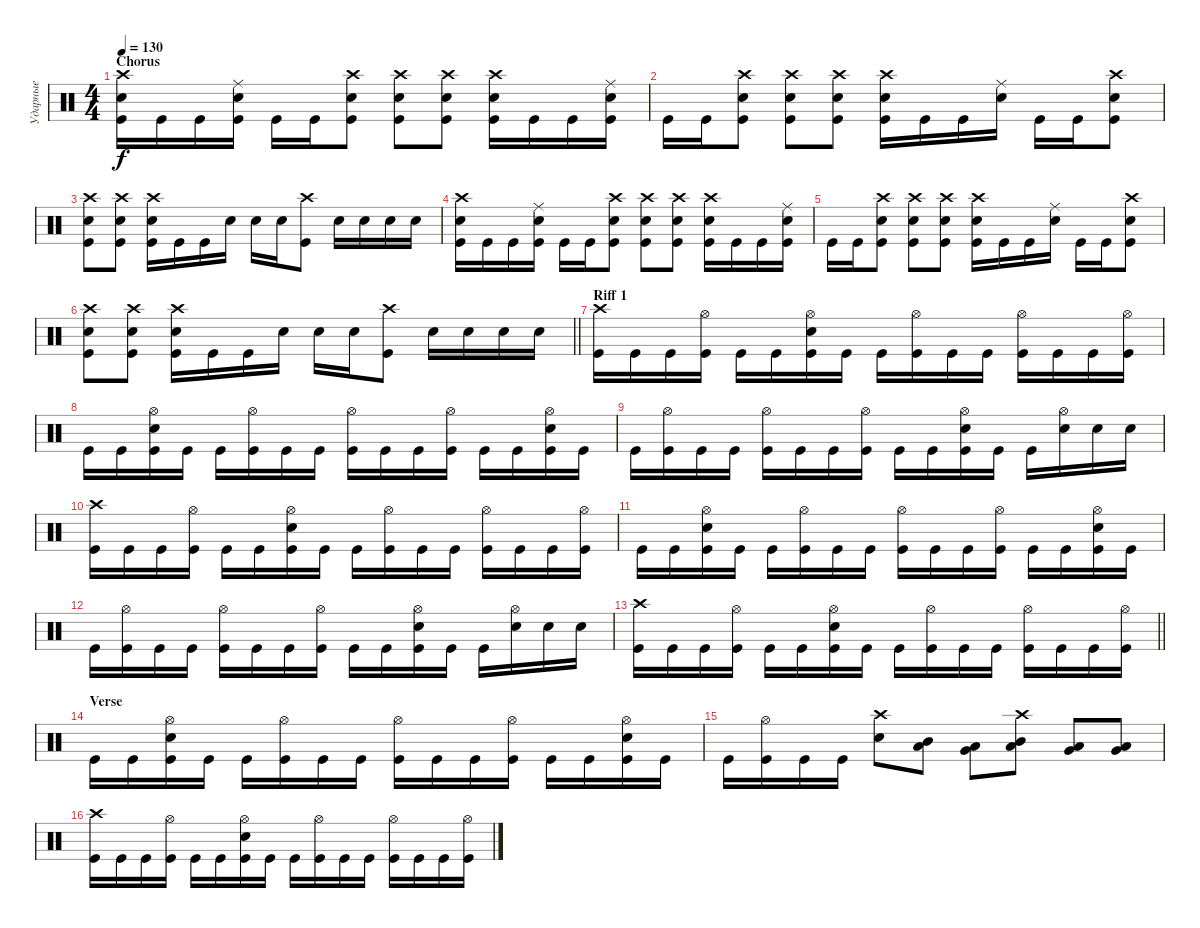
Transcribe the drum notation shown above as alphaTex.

\track ("Ударные" "Ударные") {instrument percussion}
\staff {score}
\articulation defaults
\ts (4 4)
\section ("" "Chorus")
\tempo 130
\clef neutral
\ks c
("Crash high (hit)" "Snare (hit) 2" "Kick (hit)").16{dy f} "Kick (hit)".16 "Kick (hit)".16 ("Ride (middle)" "Snare (hit) 2" "Kick (hit)").16 "Kick (hit)".16 "Kick (hit)".16 ("Crash high (hit)" "Snare (hit) 2" "Kick (hit)").8 ("Snare (hit) 2" "Crash high (hit)" "Kick (hit)").8 ("Snare (hit) 2" "Crash high (hit)" "Kick (hit)").8 ("Crash high (hit)" "Snare (hit) 2" "Kick (hit)").16 "Kick (hit)".16 "Kick (hit)".16 ("Ride (middle)" "Snare (hit) 2" "Kick (hit)").16 |
"Kick (hit)".16 "Kick (hit)".16 ("Crash high (hit)" "Snare (hit) 2" "Kick (hit)").8 ("Crash high (hit)" "Snare (hit) 2" "Kick (hit)").8 ("Crash high (hit)" "Snare (hit) 2" "Kick (hit)").8 ("Crash high (hit)" "Snare (hit) 2" "Kick (hit)").16 "Kick (hit)".16 "Kick (hit)".16 ("Ride (middle)" "Snare (hit) 2").16 "Kick (hit)".16 "Kick (hit)".16 ("Snare (hit) 2" "Crash high (hit)" "Kick (hit)").8 |
("Snare (hit) 2" "Crash high (hit)" "Kick (hit)").8 ("Snare (hit) 2" "Crash high (hit)" "Kick (hit)").8 ("Snare (hit) 2" "Crash high (hit)" "Kick (hit)").16 "Kick (hit)".16 "Kick (hit)".16 "Snare (hit) 2".16 "Snare (hit) 2".16 "Snare (hit) 2".16 ("Crash high (hit)" "Kick (hit)").8 "Snare (hit) 2".16 "Snare (hit) 2".16 "Snare (hit) 2".16 "Snare (hit) 2".16 |
("Crash high (hit)" "Snare (hit) 2" "Kick (hit)").16 "Kick (hit)".16 "Kick (hit)".16 ("Ride (middle)" "Snare (hit) 2" "Kick (hit)").16 "Kick (hit)".16 "Kick (hit)".16 ("Crash high (hit)" "Snare (hit) 2" "Kick (hit)").8 ("Snare (hit) 2" "Crash high (hit)" "Kick (hit)").8 ("Snare (hit) 2" "Crash high (hit)" "Kick (hit)").8 ("Crash high (hit)" "Snare (hit) 2" "Kick (hit)").16 "Kick (hit)".16 "Kick (hit)".16 ("Ride (middle)" "Snare (hit) 2" "Kick (hit)").16 |
"Kick (hit)".16 "Kick (hit)".16 ("Crash high (hit)" "Snare (hit) 2" "Kick (hit)").8 ("Crash high (hit)" "Snare (hit) 2" "Kick (hit)").8 ("Crash high (hit)" "Snare (hit) 2" "Kick (hit)").8 ("Crash high (hit)" "Snare (hit) 2" "Kick (hit)").16 "Kick (hit)".16 "Kick (hit)".16 ("Ride (middle)" "Snare (hit) 2").16 "Kick (hit)".16 "Kick (hit)".16 ("Snare (hit) 2" "Crash high (hit)" "Kick (hit)").8 |
\barLineRight lightlight
("Snare (hit) 2" "Crash high (hit)" "Kick (hit)").8 ("Snare (hit) 2" "Crash high (hit)" "Kick (hit)").8 ("Snare (hit) 2" "Crash high (hit)" "Kick (hit)").16 "Kick (hit)".16 "Kick (hit)".16 "Snare (hit) 2".16 "Snare (hit) 2".16 "Snare (hit) 2".16 ("Crash high (hit)" "Kick (hit)").8 "Snare (hit) 2".16 "Snare (hit) 2".16 "Snare (hit) 2".16 "Snare (hit) 2".16 |
\section ("" "Riff 1")
("Crash high (hit)" "Kick (hit)").16 "Kick (hit)".16 "Kick (hit)".16 ("Hi-Hat (open)" "Kick (hit)").16 "Kick (hit)".16 "Kick (hit)".16 ("Hi-Hat (open)" "Snare (hit) 2" "Kick (hit)").16 "Kick (hit)".16 "Kick (hit)".16 ("Hi-Hat (open)" "Kick (hit)").16 "Kick (hit)".16 "Kick (hit)".16 ("Hi-Hat (open)" "Kick (hit)").16 "Kick (hit)".16 "Kick (hit)".16 ("Hi-Hat (open)" "Kick (hit)").16 |
"Kick (hit)".16 "Kick (hit)".16 ("Hi-Hat (open)" "Snare (hit) 2" "Kick (hit)").16 "Kick (hit)".16 "Kick (hit)".16 ("Hi-Hat (open)" "Kick (hit)").16 "Kick (hit)".16 "Kick (hit)".16 ("Hi-Hat (open)" "Kick (hit)").16 "Kick (hit)".16 "Kick (hit)".16 ("Hi-Hat (open)" "Kick (hit)").16 "Kick (hit)".16 "Kick (hit)".16 ("Hi-Hat (open)" "Snare (hit) 2" "Kick (hit)").16 "Kick (hit)".16 |
"Kick (hit)".16 ("Hi-Hat (open)" "Kick (hit)").16 "Kick (hit)".16 "Kick (hit)".16 ("Hi-Hat (open)" "Kick (hit)").16 "Kick (hit)".16 "Kick (hit)".16 ("Hi-Hat (open)" "Kick (hit)").16 "Kick (hit)".16 "Kick (hit)".16 ("Snare (hit) 2" "Hi-Hat (open)" "Kick (hit)").16 "Kick (hit)".16 "Kick (hit)".16 ("Hi-Hat (open)" "Snare (hit) 2").16 "Snare (hit) 2".16 "Snare (hit) 2".16 |
("Crash high (hit)" "Kick (hit)").16 "Kick (hit)".16 "Kick (hit)".16 ("Hi-Hat (open)" "Kick (hit)").16 "Kick (hit)".16 "Kick (hit)".16 ("Hi-Hat (open)" "Snare (hit) 2" "Kick (hit)").16 "Kick (hit)".16 "Kick (hit)".16 ("Hi-Hat (open)" "Kick (hit)").16 "Kick (hit)".16 "Kick (hit)".16 ("Hi-Hat (open)" "Kick (hit)").16 "Kick (hit)".16 "Kick (hit)".16 ("Hi-Hat (open)" "Kick (hit)").16 |
"Kick (hit)".16 "Kick (hit)".16 ("Hi-Hat (open)" "Snare (hit) 2" "Kick (hit)").16 "Kick (hit)".16 "Kick (hit)".16 ("Hi-Hat (open)" "Kick (hit)").16 "Kick (hit)".16 "Kick (hit)".16 ("Hi-Hat (open)" "Kick (hit)").16 "Kick (hit)".16 "Kick (hit)".16 ("Hi-Hat (open)" "Kick (hit)").16 "Kick (hit)".16 "Kick (hit)".16 ("Hi-Hat (open)" "Snare (hit) 2" "Kick (hit)").16 "Kick (hit)".16 |
"Kick (hit)".16 ("Hi-Hat (open)" "Kick (hit)").16 "Kick (hit)".16 "Kick (hit)".16 ("Hi-Hat (open)" "Kick (hit)").16 "Kick (hit)".16 "Kick (hit)".16 ("Hi-Hat (open)" "Kick (hit)").16 "Kick (hit)".16 "Kick (hit)".16 ("Snare (hit) 2" "Hi-Hat (open)" "Kick (hit)").16 "Kick (hit)".16 "Kick (hit)".16 ("Hi-Hat (open)" "Snare (hit) 2").16 "Snare (hit) 2".16 "Snare (hit) 2".16 |
\barLineRight lightlight
("Crash high (hit)" "Kick (hit)").16 "Kick (hit)".16 "Kick (hit)".16 ("Hi-Hat (open)" "Kick (hit)").16 "Kick (hit)".16 "Kick (hit)".16 ("Hi-Hat (open)" "Snare (hit) 2" "Kick (hit)").16 "Kick (hit)".16 "Kick (hit)".16 ("Hi-Hat (open)" "Kick (hit)").16 "Kick (hit)".16 "Kick (hit)".16 ("Hi-Hat (open)" "Kick (hit)").16 "Kick (hit)".16 "Kick (hit)".16 ("Hi-Hat (open)" "Kick (hit)").16 |
\section ("" "Verse")
"Kick (hit)".16 "Kick (hit)".16 ("Hi-Hat (open)" "Snare (hit) 2" "Kick (hit)").16 "Kick (hit)".16 "Kick (hit)".16 ("Hi-Hat (open)" "Kick (hit)").16 "Kick (hit)".16 "Kick (hit)".16 ("Hi-Hat (open)" "Kick (hit)").16 "Kick (hit)".16 "Kick (hit)".16 ("Hi-Hat (open)" "Kick (hit)").16 "Kick (hit)".16 "Kick (hit)".16 ("Hi-Hat (open)" "Snare (hit) 2" "Kick (hit)").16 "Kick (hit)".16 |
"Kick (hit)".16 ("Hi-Hat (open)" "Kick (hit)").16 "Kick (hit)".16 "Kick (hit)".16 ("Crash high (hit)" "Snare (hit) 2").8 ("Mid Tom (hit)" "Low Tom (hit)").8 ("Very Low Tom (hit)" "Low Tom (hit)").8 ("Crash high (hit)" "Low Tom (hit)" "Mid Tom (hit)").8 ("Low Tom (hit)" "Very Low Tom (hit)").8 ("Very Low Tom (hit)" "Low Floor Tom (hit)").8 |
("Crash high (hit)" "Kick (hit)").16 "Kick (hit)".16 "Kick (hit)".16 ("Hi-Hat (open)" "Kick (hit)").16 "Kick (hit)".16 "Kick (hit)".16 ("Hi-Hat (open)" "Snare (hit) 2" "Kick (hit)").16 "Kick (hit)".16 "Kick (hit)".16 ("Hi-Hat (open)" "Kick (hit)").16 "Kick (hit)".16 "Kick (hit)".16 ("Hi-Hat (open)" "Kick (hit)").16 "Kick (hit)".16 "Kick (hit)".16 ("Hi-Hat (open)" "Kick (hit)").16
